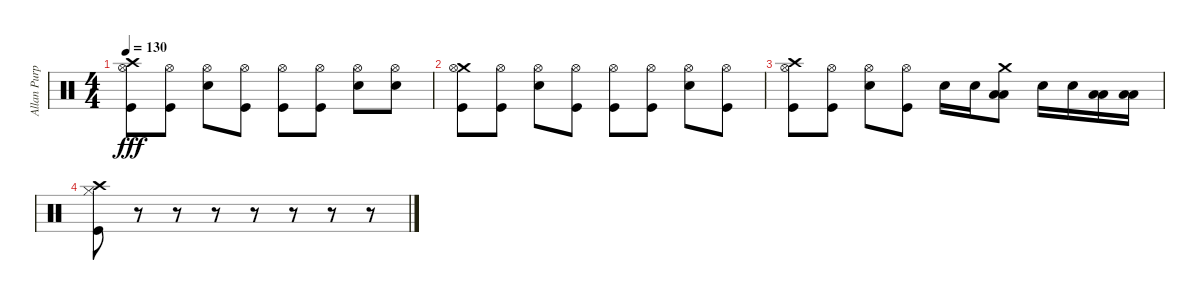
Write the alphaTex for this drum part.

\track ("Allan Purple" "Allan Purp") {instrument percussion}
\staff {score}
\articulation defaults
\ts (4 4)
\tempo 130
\clef neutral
\ks c
("Crash high (hit)" "Hi-Hat (open)" "Kick (hit)").8{dy fff} ("Hi-Hat (open)" "Kick (hit)").8 ("Hi-Hat (open)" "Electric Snare (hit)").8 ("Hi-Hat (open)" "Kick (hit)").8 ("Hi-Hat (open)" "Kick (hit)").8 ("Hi-Hat (open)" "Kick (hit)").8 ("Hi-Hat (open)" "Electric Snare (hit)").8 ("Hi-Hat (open)" "Electric Snare (hit)").8 |
("Crash medium (hit)" "Hi-Hat (open)" "Kick (hit)").8 ("Hi-Hat (open)" "Kick (hit)").8 ("Hi-Hat (open)" "Electric Snare (hit)").8 ("Hi-Hat (open)" "Kick (hit)").8 ("Hi-Hat (open)" "Kick (hit)").8 ("Hi-Hat (open)" "Kick (hit)").8 ("Hi-Hat (open)" "Electric Snare (hit)").8 ("Hi-Hat (open)" "Kick (hit)").8 |
("Crash high (hit)" "Hi-Hat (open)" "Kick (hit)").8 ("Hi-Hat (open)" "Kick (hit)").8 ("Hi-Hat (open)" "Electric Snare (hit)").8 ("Hi-Hat (open)" "Kick (hit)").8 "Electric Snare (hit)".16 "Electric Snare (hit)".16 ("Crash medium (hit)" "Low Tom (hit)" "Low Tom (hit)").8 "Snare (hit) 2".16 "Snare (hit) 2".16 ("Low Tom (hit)" "Low Tom (hit)").16 ("Low Tom (hit)" "Low Tom (hit)").16 |
("Crash high (hit)" "Hi-Hat (closed)" "Kick (hit)").8 r.8 r.8 r.8 r.8 r.8 r.8 r.8
